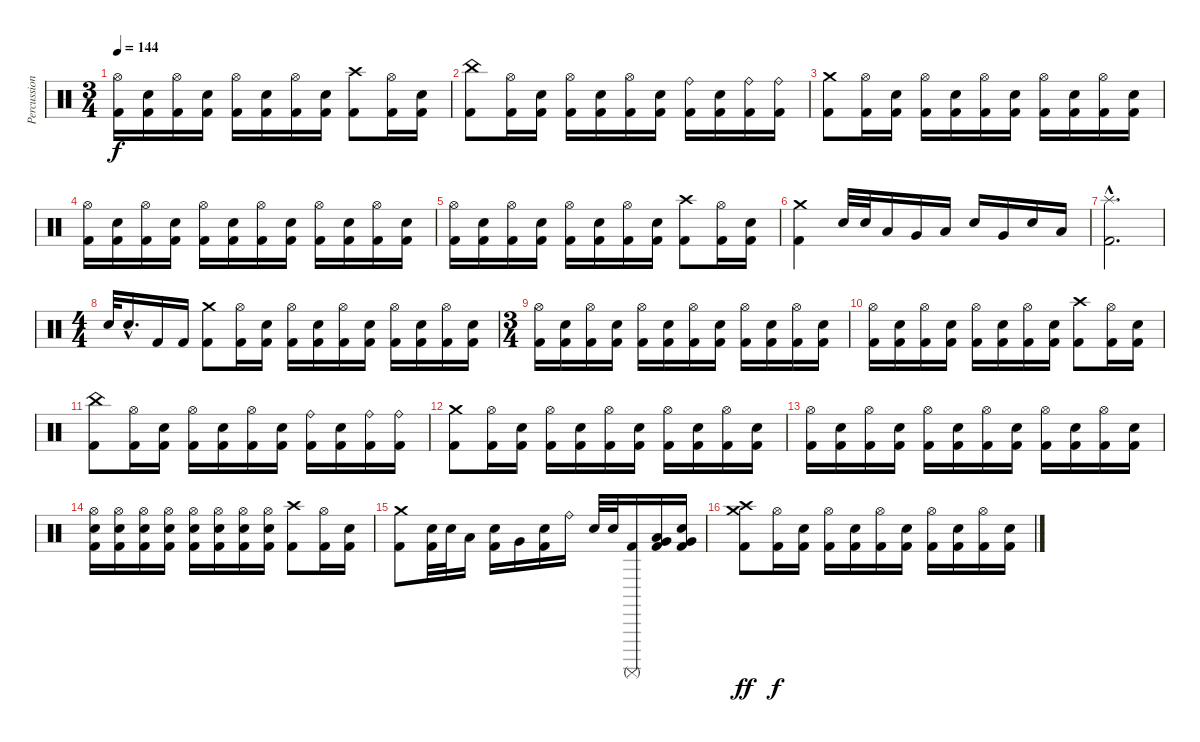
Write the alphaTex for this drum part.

\track ("Percussion" "Percussion") {instrument percussion}
\staff {score}
\articulation defaults
\ts (3 4)
\tempo 144
\clef neutral
\ks c
("Hi-Hat (open)" "Kick (hit) 2").16{dy f} ("Electric Snare (hit)" "Kick (hit) 2").16 ("Hi-Hat (open)" "Kick (hit) 2").16 ("Electric Snare (hit)" "Kick (hit) 2").16 ("Hi-Hat (open)" "Kick (hit) 2").16 ("Electric Snare (hit)" "Kick (hit) 2").16 ("Hi-Hat (open)" "Kick (hit) 2").16 ("Electric Snare (hit)" "Kick (hit) 2").16 ("Crash high (hit)" "Kick (hit) 2").8 ("Hi-Hat (open)" "Kick (hit) 2").16 ("Electric Snare (hit)" "Kick (hit) 2").16 |
("China (hit)" "Kick (hit) 2").8 ("Hi-Hat (open)" "Kick (hit) 2").16 ("Electric Snare (hit)" "Kick (hit) 2").16 ("Hi-Hat (open)" "Kick (hit) 2").16 ("Electric Snare (hit)" "Kick (hit) 2").16 ("Hi-Hat (open)" "Kick (hit) 2").16 ("Electric Snare (hit)" "Kick (hit) 2").16 ("Ride (bell)" "Kick (hit) 2").16 ("Electric Snare (hit)" "Kick (hit) 2").16 ("Ride (bell)" "Kick (hit) 2").16 ("Ride (bell)" "Kick (hit) 2").16 |
("Crash medium (hit)" "Kick (hit) 2").8 ("Hi-Hat (open)" "Kick (hit) 2").16 ("Electric Snare (hit)" "Kick (hit) 2").16 ("Hi-Hat (open)" "Kick (hit) 2").16 ("Electric Snare (hit)" "Kick (hit) 2").16 ("Hi-Hat (open)" "Kick (hit) 2").16 ("Electric Snare (hit)" "Kick (hit) 2").16 ("Hi-Hat (open)" "Kick (hit) 2").16 ("Electric Snare (hit)" "Kick (hit) 2").16 ("Hi-Hat (open)" "Kick (hit) 2").16 ("Electric Snare (hit)" "Kick (hit) 2").16 |
("Hi-Hat (open)" "Kick (hit) 2").16 ("Electric Snare (hit)" "Kick (hit) 2").16 ("Hi-Hat (open)" "Kick (hit) 2").16 ("Electric Snare (hit)" "Kick (hit) 2").16 ("Hi-Hat (open)" "Kick (hit) 2").16 ("Electric Snare (hit)" "Kick (hit) 2").16 ("Hi-Hat (open)" "Kick (hit) 2").16 ("Electric Snare (hit)" "Kick (hit) 2").16 ("Hi-Hat (open)" "Kick (hit) 2").16 ("Electric Snare (hit)" "Kick (hit) 2").16 ("Hi-Hat (open)" "Kick (hit) 2").16 ("Electric Snare (hit)" "Kick (hit) 2").16 |
("Hi-Hat (open)" "Kick (hit) 2").16 ("Electric Snare (hit)" "Kick (hit) 2").16 ("Hi-Hat (open)" "Kick (hit) 2").16 ("Electric Snare (hit)" "Kick (hit) 2").16 ("Hi-Hat (open)" "Kick (hit) 2").16 ("Electric Snare (hit)" "Kick (hit) 2").16 ("Hi-Hat (open)" "Kick (hit) 2").16 ("Electric Snare (hit)" "Kick (hit) 2").16 ("Crash high (hit)" "Kick (hit) 2").8 ("Hi-Hat (open)" "Kick (hit) 2").16 ("Electric Snare (hit)" "Kick (hit) 2").16 |
("Crash medium (hit)" "Kick (hit) 2").4 "Electric Snare (hit)".32 "Electric Snare (hit)".32 "Low Tom (hit)".16 "Very Low Tom (hit)".16 "Low Tom (hit)".16 "Electric Snare (hit)".16 "Very Low Tom (hit)".16 "Electric Snare (hit)".16 "Low Tom (hit)".16 |
("Splash (hit)"{hac} "Kick (hit) 2"{hac}).2{d} |
\ts (4 4)
"Snare (hit) 2".32 "Snare (hit) 2"{hac}.16{d} "Kick (hit) 2".16 "Kick (hit) 2".16 ("Crash medium (hit)" "Kick (hit) 2").8 ("Hi-Hat (open)" "Kick (hit) 2").16 ("Electric Snare (hit)" "Kick (hit) 2").16 ("Hi-Hat (open)" "Kick (hit) 2").16 ("Electric Snare (hit)" "Kick (hit) 2").16 ("Hi-Hat (open)" "Kick (hit) 2").16 ("Electric Snare (hit)" "Kick (hit) 2").16 ("Hi-Hat (open)" "Kick (hit) 2").16 ("Electric Snare (hit)" "Kick (hit) 2").16 ("Hi-Hat (open)" "Kick (hit) 2").16 ("Electric Snare (hit)" "Kick (hit) 2").16 |
\ts (3 4)
("Hi-Hat (open)" "Kick (hit) 2").16 ("Electric Snare (hit)" "Kick (hit) 2").16 ("Hi-Hat (open)" "Kick (hit) 2").16 ("Electric Snare (hit)" "Kick (hit) 2").16 ("Hi-Hat (open)" "Kick (hit) 2").16 ("Electric Snare (hit)" "Kick (hit) 2").16 ("Hi-Hat (open)" "Kick (hit) 2").16 ("Electric Snare (hit)" "Kick (hit) 2").16 ("Hi-Hat (open)" "Kick (hit) 2").16 ("Electric Snare (hit)" "Kick (hit) 2").16 ("Hi-Hat (open)" "Kick (hit) 2").16 ("Electric Snare (hit)" "Kick (hit) 2").16 |
("Hi-Hat (open)" "Kick (hit) 2").16 ("Electric Snare (hit)" "Kick (hit) 2").16 ("Hi-Hat (open)" "Kick (hit) 2").16 ("Electric Snare (hit)" "Kick (hit) 2").16 ("Hi-Hat (open)" "Kick (hit) 2").16 ("Electric Snare (hit)" "Kick (hit) 2").16 ("Hi-Hat (open)" "Kick (hit) 2").16 ("Electric Snare (hit)" "Kick (hit) 2").16 ("Crash high (hit)" "Kick (hit) 2").8 ("Hi-Hat (open)" "Kick (hit) 2").16 ("Electric Snare (hit)" "Kick (hit) 2").16 |
("China (hit)" "Kick (hit) 2").8 ("Hi-Hat (open)" "Kick (hit) 2").16 ("Electric Snare (hit)" "Kick (hit) 2").16 ("Hi-Hat (open)" "Kick (hit) 2").16 ("Electric Snare (hit)" "Kick (hit) 2").16 ("Hi-Hat (open)" "Kick (hit) 2").16 ("Electric Snare (hit)" "Kick (hit) 2").16 ("Ride (bell)" "Kick (hit) 2").16 ("Electric Snare (hit)" "Kick (hit) 2").16 ("Ride (bell)" "Kick (hit) 2").16 ("Ride (bell)" "Kick (hit) 2").16 |
("Crash medium (hit)" "Kick (hit) 2").8 ("Hi-Hat (open)" "Kick (hit) 2").16 ("Electric Snare (hit)" "Kick (hit) 2").16 ("Hi-Hat (open)" "Kick (hit) 2").16 ("Electric Snare (hit)" "Kick (hit) 2").16 ("Hi-Hat (open)" "Kick (hit) 2").16 ("Electric Snare (hit)" "Kick (hit) 2").16 ("Hi-Hat (open)" "Kick (hit) 2").16 ("Electric Snare (hit)" "Kick (hit) 2").16 ("Hi-Hat (open)" "Kick (hit) 2").16 ("Electric Snare (hit)" "Kick (hit) 2").16 |
("Hi-Hat (open)" "Kick (hit) 2").16 ("Electric Snare (hit)" "Kick (hit) 2").16 ("Hi-Hat (open)" "Kick (hit) 2").16 ("Electric Snare (hit)" "Kick (hit) 2").16 ("Hi-Hat (open)" "Kick (hit) 2").16 ("Electric Snare (hit)" "Kick (hit) 2").16 ("Hi-Hat (open)" "Kick (hit) 2").16 ("Electric Snare (hit)" "Kick (hit) 2").16 ("Hi-Hat (open)" "Kick (hit) 2").16 ("Electric Snare (hit)" "Kick (hit) 2").16 ("Hi-Hat (open)" "Kick (hit) 2").16 ("Electric Snare (hit)" "Kick (hit) 2").16 |
("Hi-Hat (open)" "Electric Snare (hit)" "Kick (hit) 2").16 ("Hi-Hat (open)" "Electric Snare (hit)" "Kick (hit) 2").16 ("Hi-Hat (open)" "Electric Snare (hit)" "Kick (hit) 2").16 ("Hi-Hat (open)" "Electric Snare (hit)" "Kick (hit) 2").16 ("Hi-Hat (open)" "Electric Snare (hit)" "Kick (hit) 2").16 ("Hi-Hat (open)" "Electric Snare (hit)" "Kick (hit) 2").16 ("Hi-Hat (open)" "Electric Snare (hit)" "Kick (hit) 2").16 ("Hi-Hat (open)" "Electric Snare (hit)" "Kick (hit) 2").16 ("Crash high (hit)" "Kick (hit) 2").8 ("Hi-Hat (open)" "Kick (hit) 2").16 ("Electric Snare (hit)" "Kick (hit) 2").16 |
("Crash medium (hit)" "Kick (hit) 2").8 ("Electric Snare (hit)" "Kick (hit) 2").32 "Electric Snare (hit)".32 "Low Tom (hit)".16 ("Electric Snare (hit)" "Kick (hit) 2").16 "Very Low Tom (hit)".16 ("Electric Snare (hit)" "Kick (hit) 2").16 "Ride (bell)".16 "Electric Snare (hit)".32 "Electric Snare (hit)".32 ("Surdo (mute)" "Kick (hit) 2").16 ("Low Tom (hit)" "Very Low Tom (hit)" "Kick (hit) 2").16 ("Very Low Tom (hit)" "Electric Snare (hit)" "Kick (hit) 2").16 |
("Crash medium (hit)" "Crash high (hit)" "Kick (hit) 2").8{dy ff} ("Hi-Hat (open)" "Kick (hit) 2").16{dy f} ("Electric Snare (hit)" "Kick (hit) 2").16 ("Hi-Hat (open)" "Kick (hit) 2").16 ("Electric Snare (hit)" "Kick (hit) 2").16 ("Hi-Hat (open)" "Kick (hit) 2").16 ("Electric Snare (hit)" "Kick (hit) 2").16 ("Hi-Hat (open)" "Kick (hit) 2").16 ("Electric Snare (hit)" "Kick (hit) 2").16 ("Hi-Hat (open)" "Kick (hit) 2").16 ("Electric Snare (hit)" "Kick (hit) 2").16
